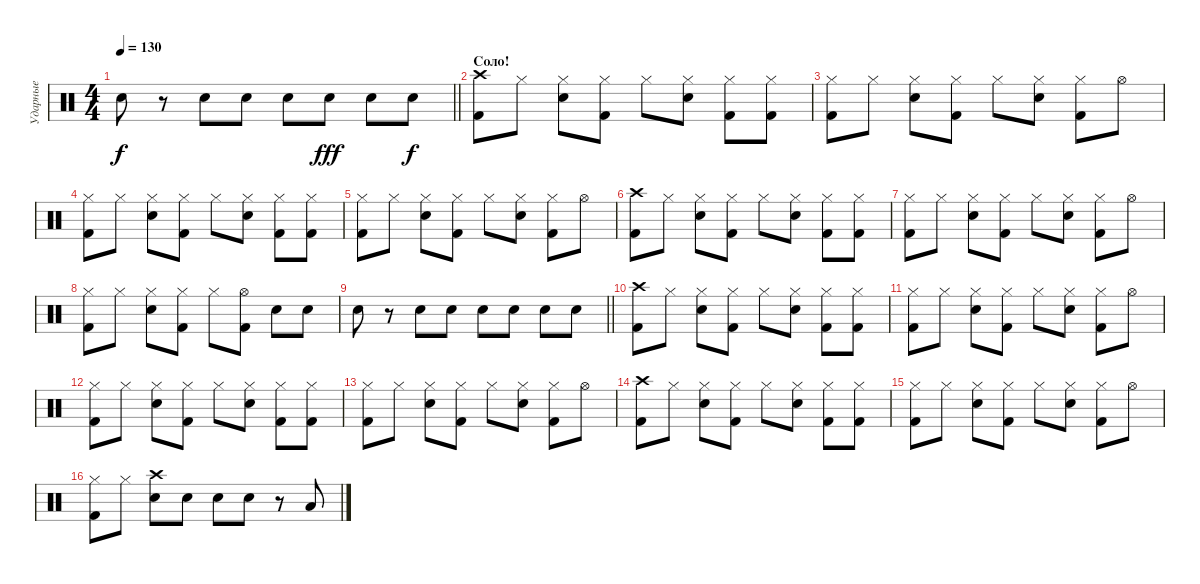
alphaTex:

\track ("Ударные" "Ударные") {instrument percussion}
\staff {score}
\articulation defaults
\ts (4 4)
\tempo 130
\clef neutral
\barLineRight lightlight
\ks c "Snare (hit) 2".8{dy f}
r.8 "Snare (hit) 2".8 "Snare (hit) 2".8 "Snare (hit) 2".8 "Snare (hit) 2".8{dy fff} "Snare (hit) 2".8 "Snare (hit) 2".8{dy f} |
\section ("" "Соло!")
("Crash high (hit)" "Kick (hit) 2").8 "Hi-Hat (closed)".8 ("Hi-Hat (closed)" "Snare (hit) 2").8 ("Hi-Hat (closed)" "Kick (hit) 2").8 "Hi-Hat (closed)".8 ("Hi-Hat (closed)" "Snare (hit) 2").8 ("Hi-Hat (closed)" "Kick (hit) 2").8 ("Hi-Hat (closed)" "Kick (hit) 2").8 |
("Hi-Hat (closed)" "Kick (hit) 2").8 "Hi-Hat (closed)".8 ("Hi-Hat (closed)" "Snare (hit) 2").8 ("Hi-Hat (closed)" "Kick (hit) 2").8 "Hi-Hat (closed)".8 ("Hi-Hat (closed)" "Snare (hit) 2").8 ("Hi-Hat (closed)" "Kick (hit) 2").8 "Hi-Hat (open)".8 |
("Hi-Hat (closed)" "Kick (hit) 2").8 "Hi-Hat (closed)".8 ("Hi-Hat (closed)" "Snare (hit) 2").8 ("Hi-Hat (closed)" "Kick (hit) 2").8 "Hi-Hat (closed)".8 ("Hi-Hat (closed)" "Snare (hit) 2").8 ("Hi-Hat (closed)" "Kick (hit) 2").8 ("Hi-Hat (closed)" "Kick (hit) 2").8 |
("Hi-Hat (closed)" "Kick (hit) 2").8 "Hi-Hat (closed)".8 ("Hi-Hat (closed)" "Snare (hit) 2").8 ("Hi-Hat (closed)" "Kick (hit) 2").8 "Hi-Hat (closed)".8 ("Hi-Hat (closed)" "Snare (hit) 2").8 ("Hi-Hat (closed)" "Kick (hit) 2").8 "Hi-Hat (open)".8 |
("Crash high (hit)" "Kick (hit) 2").8 "Hi-Hat (closed)".8 ("Hi-Hat (closed)" "Snare (hit) 2").8 ("Hi-Hat (closed)" "Kick (hit) 2").8 "Hi-Hat (closed)".8 ("Hi-Hat (closed)" "Snare (hit) 2").8 ("Hi-Hat (closed)" "Kick (hit) 2").8 ("Hi-Hat (closed)" "Kick (hit) 2").8 |
("Hi-Hat (closed)" "Kick (hit) 2").8 "Hi-Hat (closed)".8 ("Hi-Hat (closed)" "Snare (hit) 2").8 ("Hi-Hat (closed)" "Kick (hit) 2").8 "Hi-Hat (closed)".8 ("Hi-Hat (closed)" "Snare (hit) 2").8 ("Hi-Hat (closed)" "Kick (hit) 2").8 "Hi-Hat (open)".8 |
("Hi-Hat (closed)" "Kick (hit) 2").8 "Hi-Hat (closed)".8 ("Hi-Hat (closed)" "Snare (hit) 2").8 ("Hi-Hat (closed)" "Kick (hit) 2").8 "Hi-Hat (closed)".8 ("Hi-Hat (open)" "Kick (hit) 2").8 "Snare (hit) 2".8 "Snare (hit) 2".8 |
\barLineRight lightlight "Snare (hit) 2".8
r.8 "Snare (hit) 2".8 "Snare (hit) 2".8 "Snare (hit) 2".8 "Snare (hit) 2".8 "Snare (hit) 2".8 "Snare (hit) 2".8 |
("Crash high (hit)" "Kick (hit) 2").8 "Hi-Hat (closed)".8 ("Hi-Hat (closed)" "Snare (hit) 2").8 ("Hi-Hat (closed)" "Kick (hit) 2").8 "Hi-Hat (closed)".8 ("Hi-Hat (closed)" "Snare (hit) 2").8 ("Hi-Hat (closed)" "Kick (hit) 2").8 ("Hi-Hat (closed)" "Kick (hit) 2").8 |
("Hi-Hat (closed)" "Kick (hit) 2").8 "Hi-Hat (closed)".8 ("Hi-Hat (closed)" "Snare (hit) 2").8 ("Hi-Hat (closed)" "Kick (hit) 2").8 "Hi-Hat (closed)".8 ("Hi-Hat (closed)" "Snare (hit) 2").8 ("Hi-Hat (closed)" "Kick (hit) 2").8 "Hi-Hat (open)".8 |
("Hi-Hat (closed)" "Kick (hit) 2").8 "Hi-Hat (closed)".8 ("Hi-Hat (closed)" "Snare (hit) 2").8 ("Hi-Hat (closed)" "Kick (hit) 2").8 "Hi-Hat (closed)".8 ("Hi-Hat (closed)" "Snare (hit) 2").8 ("Hi-Hat (closed)" "Kick (hit) 2").8 ("Hi-Hat (closed)" "Kick (hit) 2").8 |
("Hi-Hat (closed)" "Kick (hit) 2").8 "Hi-Hat (closed)".8 ("Hi-Hat (closed)" "Snare (hit) 2").8 ("Hi-Hat (closed)" "Kick (hit) 2").8 "Hi-Hat (closed)".8 ("Hi-Hat (closed)" "Snare (hit) 2").8 ("Hi-Hat (closed)" "Kick (hit) 2").8 "Hi-Hat (open)".8 |
("Crash high (hit)" "Kick (hit) 2").8 "Hi-Hat (closed)".8 ("Hi-Hat (closed)" "Snare (hit) 2").8 ("Hi-Hat (closed)" "Kick (hit) 2").8 "Hi-Hat (closed)".8 ("Hi-Hat (closed)" "Snare (hit) 2").8 ("Hi-Hat (closed)" "Kick (hit) 2").8 ("Hi-Hat (closed)" "Kick (hit) 2").8 |
("Hi-Hat (closed)" "Kick (hit) 2").8 "Hi-Hat (closed)".8 ("Hi-Hat (closed)" "Snare (hit) 2").8 ("Hi-Hat (closed)" "Kick (hit) 2").8 "Hi-Hat (closed)".8 ("Hi-Hat (closed)" "Snare (hit) 2").8 ("Hi-Hat (closed)" "Kick (hit) 2").8 "Hi-Hat (open)".8 |
("Hi-Hat (closed)" "Kick (hit) 2").8 "Hi-Hat (closed)".8 ("Crash high (hit)" "Snare (hit) 2").8 "Snare (hit) 2".8 "Snare (hit) 2".8 "Snare (hit) 2".8 r.8 "Low Tom (hit)".8
